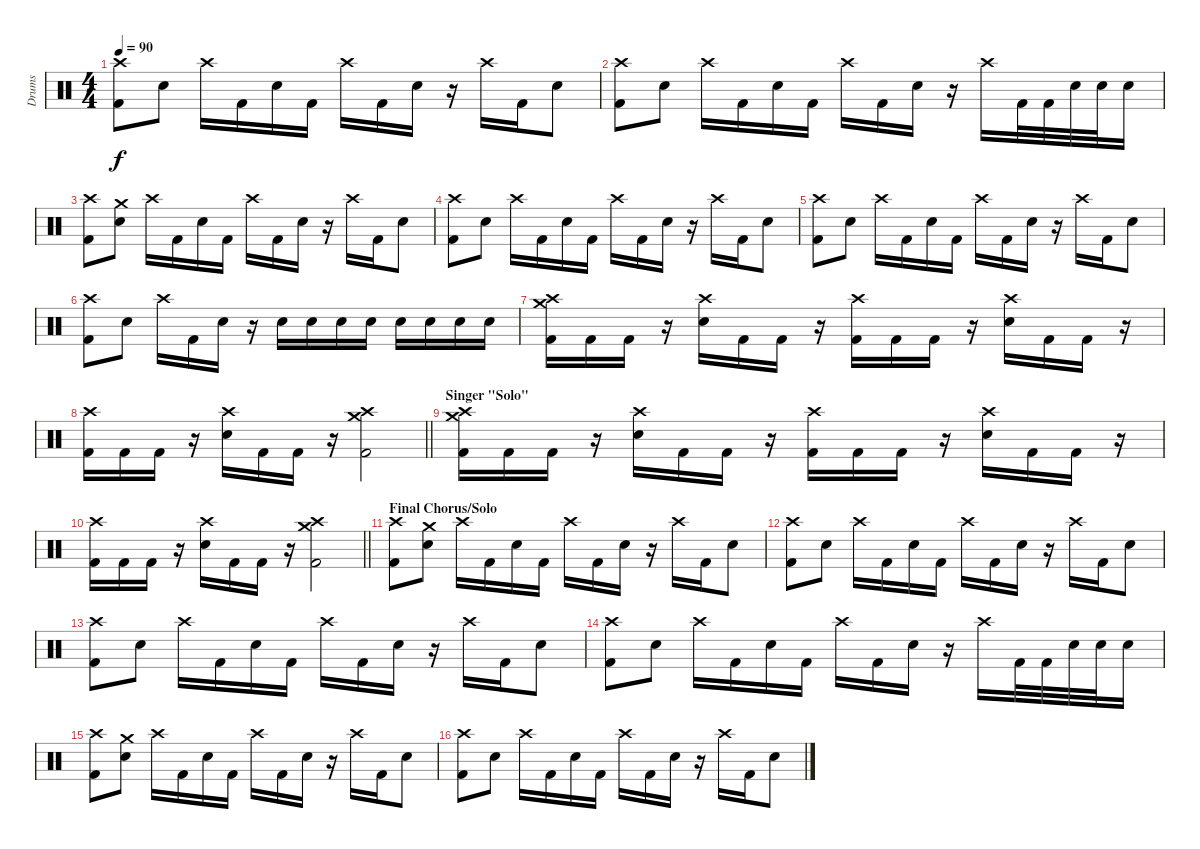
\track ("Drums" "Drums") {instrument percussion}
\staff {score}
\articulation defaults
\ts (4 4)
\tempo 90
\clef neutral
\ks c
("Crash high (hit)" "Kick (hit) 2").8{dy f} "Electric Snare (hit)".8 "Crash high (hit)".16 "Kick (hit) 2".16 "Electric Snare (hit)".16 "Kick (hit) 2".16 "Crash high (hit)".16 "Kick (hit) 2".16 "Electric Snare (hit)".16 r.16 "Crash high (hit)".16 "Kick (hit) 2".16 "Electric Snare (hit)".8 |
("Crash high (hit)" "Kick (hit) 2").8 "Electric Snare (hit)".8 "Crash high (hit)".16 "Kick (hit) 2".16 "Electric Snare (hit)".16 "Kick (hit) 2".16 "Crash high (hit)".16 "Kick (hit) 2".16 "Electric Snare (hit)".16 r.16 "Crash high (hit)".16 "Kick (hit) 2".32 "Kick (hit) 2".32 "Electric Snare (hit)".32 "Electric Snare (hit)".32 "Electric Snare (hit)".16 |
("Crash high (hit)" "Kick (hit) 2").8 ("Crash medium (hit)" "Electric Snare (hit)").8 "Crash high (hit)".16 "Kick (hit) 2".16 "Electric Snare (hit)".16 "Kick (hit) 2".16 "Crash high (hit)".16 "Kick (hit) 2".16 "Electric Snare (hit)".16 r.16 "Crash high (hit)".16 "Kick (hit) 2".16 "Electric Snare (hit)".8 |
("Crash high (hit)" "Kick (hit) 2").8 "Electric Snare (hit)".8 "Crash high (hit)".16 "Kick (hit) 2".16 "Electric Snare (hit)".16 "Kick (hit) 2".16 "Crash high (hit)".16 "Kick (hit) 2".16 "Electric Snare (hit)".16 r.16 "Crash high (hit)".16 "Kick (hit) 2".16 "Electric Snare (hit)".8 |
("Crash high (hit)" "Kick (hit) 2").8 "Electric Snare (hit)".8 "Crash high (hit)".16 "Kick (hit) 2".16 "Electric Snare (hit)".16 "Kick (hit) 2".16 "Crash high (hit)".16 "Kick (hit) 2".16 "Electric Snare (hit)".16 r.16 "Crash high (hit)".16 "Kick (hit) 2".16 "Electric Snare (hit)".8 |
("Crash high (hit)" "Kick (hit) 2").8 "Electric Snare (hit)".8 "Crash high (hit)".16 "Kick (hit) 2".16 "Electric Snare (hit)".16 r.16 "Electric Snare (hit)".16 "Electric Snare (hit)".16 "Electric Snare (hit)".16 "Electric Snare (hit)".16 "Electric Snare (hit)".16 "Electric Snare (hit)".16 "Electric Snare (hit)".16 "Electric Snare (hit)".16 |
("Crash medium (hit)" "Crash high (hit)" "Kick (hit) 2").16 "Kick (hit) 2".16 "Kick (hit) 2".16 r.16 ("Crash high (hit)" "Electric Snare (hit)").16 "Kick (hit) 2".16 "Kick (hit) 2".16 r.16 ("Crash high (hit)" "Kick (hit) 2").16 "Kick (hit) 2".16 "Kick (hit) 2".16 r.16 ("Crash high (hit)" "Electric Snare (hit)").16 "Kick (hit) 2".16 "Kick (hit) 2".16 r.16 |
\barLineRight lightlight
("Crash high (hit)" "Kick (hit) 2").16 "Kick (hit) 2".16 "Kick (hit) 2".16 r.16 ("Crash high (hit)" "Electric Snare (hit)").16 "Kick (hit) 2".16 "Kick (hit) 2".16 r.16 ("Crash medium (hit)" "Crash high (hit)" "Kick (hit) 2").2 |
\section ("" "Singer \"Solo\"")
("Crash medium (hit)" "Crash high (hit)" "Kick (hit) 2").16 "Kick (hit) 2".16 "Kick (hit) 2".16 r.16 ("Crash high (hit)" "Electric Snare (hit)").16 "Kick (hit) 2".16 "Kick (hit) 2".16 r.16 ("Crash high (hit)" "Kick (hit) 2").16 "Kick (hit) 2".16 "Kick (hit) 2".16 r.16 ("Crash high (hit)" "Electric Snare (hit)").16 "Kick (hit) 2".16 "Kick (hit) 2".16 r.16 |
\barLineRight lightlight
("Crash high (hit)" "Kick (hit) 2").16 "Kick (hit) 2".16 "Kick (hit) 2".16 r.16 ("Crash high (hit)" "Electric Snare (hit)").16 "Kick (hit) 2".16 "Kick (hit) 2".16 r.16 ("Crash medium (hit)" "Crash high (hit)" "Kick (hit) 2").2 |
\section ("" "Final Chorus/Solo")
("Crash high (hit)" "Kick (hit) 2").8 ("Crash medium (hit)" "Electric Snare (hit)").8 "Crash high (hit)".16 "Kick (hit) 2".16 "Electric Snare (hit)".16 "Kick (hit) 2".16 "Crash high (hit)".16 "Kick (hit) 2".16 "Electric Snare (hit)".16 r.16 "Crash high (hit)".16 "Kick (hit) 2".16 "Electric Snare (hit)".8 |
("Crash high (hit)" "Kick (hit) 2").8 "Electric Snare (hit)".8 "Crash high (hit)".16 "Kick (hit) 2".16 "Electric Snare (hit)".16 "Kick (hit) 2".16 "Crash high (hit)".16 "Kick (hit) 2".16 "Electric Snare (hit)".16 r.16 "Crash high (hit)".16 "Kick (hit) 2".16 "Electric Snare (hit)".8 |
("Crash high (hit)" "Kick (hit) 2").8 "Electric Snare (hit)".8 "Crash high (hit)".16 "Kick (hit) 2".16 "Electric Snare (hit)".16 "Kick (hit) 2".16 "Crash high (hit)".16 "Kick (hit) 2".16 "Electric Snare (hit)".16 r.16 "Crash high (hit)".16 "Kick (hit) 2".16 "Electric Snare (hit)".8 |
("Crash high (hit)" "Kick (hit) 2").8 "Electric Snare (hit)".8 "Crash high (hit)".16 "Kick (hit) 2".16 "Electric Snare (hit)".16 "Kick (hit) 2".16 "Crash high (hit)".16 "Kick (hit) 2".16 "Electric Snare (hit)".16 r.16 "Crash high (hit)".16 "Kick (hit) 2".32 "Kick (hit) 2".32 "Electric Snare (hit)".32 "Electric Snare (hit)".32 "Electric Snare (hit)".16 |
("Crash high (hit)" "Kick (hit) 2").8 ("Crash medium (hit)" "Electric Snare (hit)").8 "Crash high (hit)".16 "Kick (hit) 2".16 "Electric Snare (hit)".16 "Kick (hit) 2".16 "Crash high (hit)".16 "Kick (hit) 2".16 "Electric Snare (hit)".16 r.16 "Crash high (hit)".16 "Kick (hit) 2".16 "Electric Snare (hit)".8 |
("Crash high (hit)" "Kick (hit) 2").8 "Electric Snare (hit)".8 "Crash high (hit)".16 "Kick (hit) 2".16 "Electric Snare (hit)".16 "Kick (hit) 2".16 "Crash high (hit)".16 "Kick (hit) 2".16 "Electric Snare (hit)".16 r.16 "Crash high (hit)".16 "Kick (hit) 2".16 "Electric Snare (hit)".8
